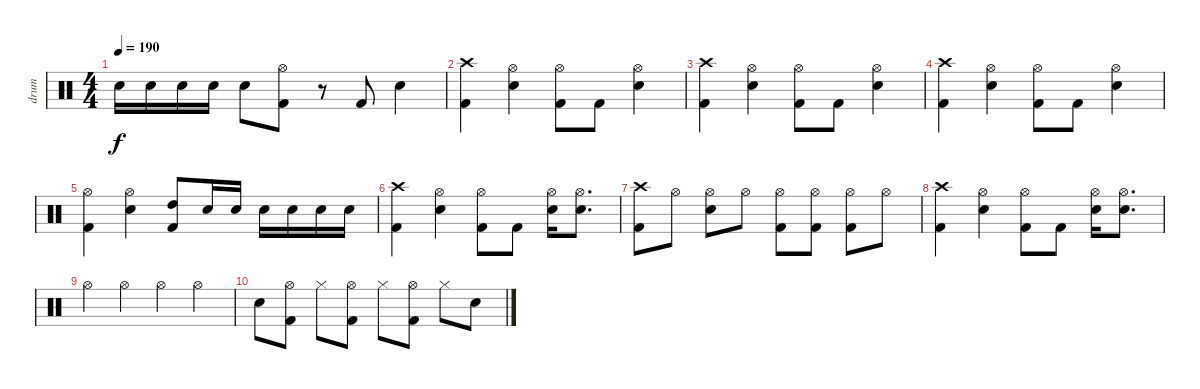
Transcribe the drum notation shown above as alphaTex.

\track ("drum" "drum") {instrument percussion}
\staff {score}
\articulation defaults
\ts (4 4)
\tempo 190
\clef neutral
\ks c "Snare (hit) 2".16{dy f} "Snare (hit) 2".16 "Snare (hit) 2".16 "Snare (hit) 2".16 "Snare (hit) 2".8
("Hi-Hat (open)" "Kick (hit) 2").8 r.8 "Kick (hit) 2".8 "Snare (hit) 2".4 |
("Crash high (hit)" "Kick (hit) 2").4 ("Hi-Hat (open)" "Snare (hit) 2").4 ("Hi-Hat (open)" "Kick (hit) 2").8 "Kick (hit) 2".8 ("Hi-Hat (open)" "Snare (hit) 2").4 |
("Crash high (hit)" "Kick (hit) 2").4 ("Hi-Hat (open)" "Snare (hit) 2").4 ("Hi-Hat (open)" "Kick (hit) 2").8 "Kick (hit) 2".8 ("Hi-Hat (open)" "Snare (hit) 2").4 |
("Crash high (hit)" "Kick (hit) 2").4 ("Hi-Hat (open)" "Snare (hit) 2").4 ("Hi-Hat (open)" "Kick (hit) 2").8 "Kick (hit) 2".8 ("Hi-Hat (open)" "Snare (hit) 2").4 |
("Hi-Hat (open)" "Kick (hit) 2").4 ("Hi-Hat (open)" "Snare (hit) 2").4 ("High Tom (hit)" "Kick (hit) 2").8 "Snare (hit) 2".16 "Snare (hit) 2".16 "Snare (hit) 2".16 "Snare (hit) 2".16 "Snare (hit) 2".16 "Snare (hit) 2".16 |
("Crash high (hit)" "Kick (hit) 2").4 ("Hi-Hat (open)" "Snare (hit) 2").4 ("Hi-Hat (open)" "Kick (hit) 2").8 "Kick (hit) 2".8 ("Hi-Hat (open)" "Snare (hit) 2").16 ("Hi-Hat (open)" "Snare (hit) 2").8{d} |
("Crash high (hit)" "Kick (hit) 2").8{volume 16} "Hi-Hat (open)".8 ("Hi-Hat (open)" "Snare (hit) 2").8 "Hi-Hat (open)".8 ("Hi-Hat (open)" "Kick (hit) 2").8 ("Hi-Hat (open)" "Kick (hit) 2").8 ("Hi-Hat (open)" "Kick (hit) 2").8 "Hi-Hat (open)".8 |
("Crash high (hit)" "Kick (hit) 2").4 ("Hi-Hat (open)" "Snare (hit) 2").4 ("Hi-Hat (open)" "Kick (hit) 2").8 "Kick (hit) 2".8 ("Hi-Hat (open)" "Snare (hit) 2").16 ("Hi-Hat (open)" "Snare (hit) 2").8{d} |
"Hi-Hat (open)".4 "Hi-Hat (open)".4 "Hi-Hat (open)".4 "Hi-Hat (open)".4 |
"Snare (hit) 2".8 ("Hi-Hat (open)" "Kick (hit) 2").8 "Hi-Hat (closed)".8 ("Hi-Hat (open)" "Kick (hit) 2").8 "Hi-Hat (closed)".8 ("Hi-Hat (open)" "Kick (hit) 2").8 "Hi-Hat (closed)".8 "Snare (hit) 2".8
